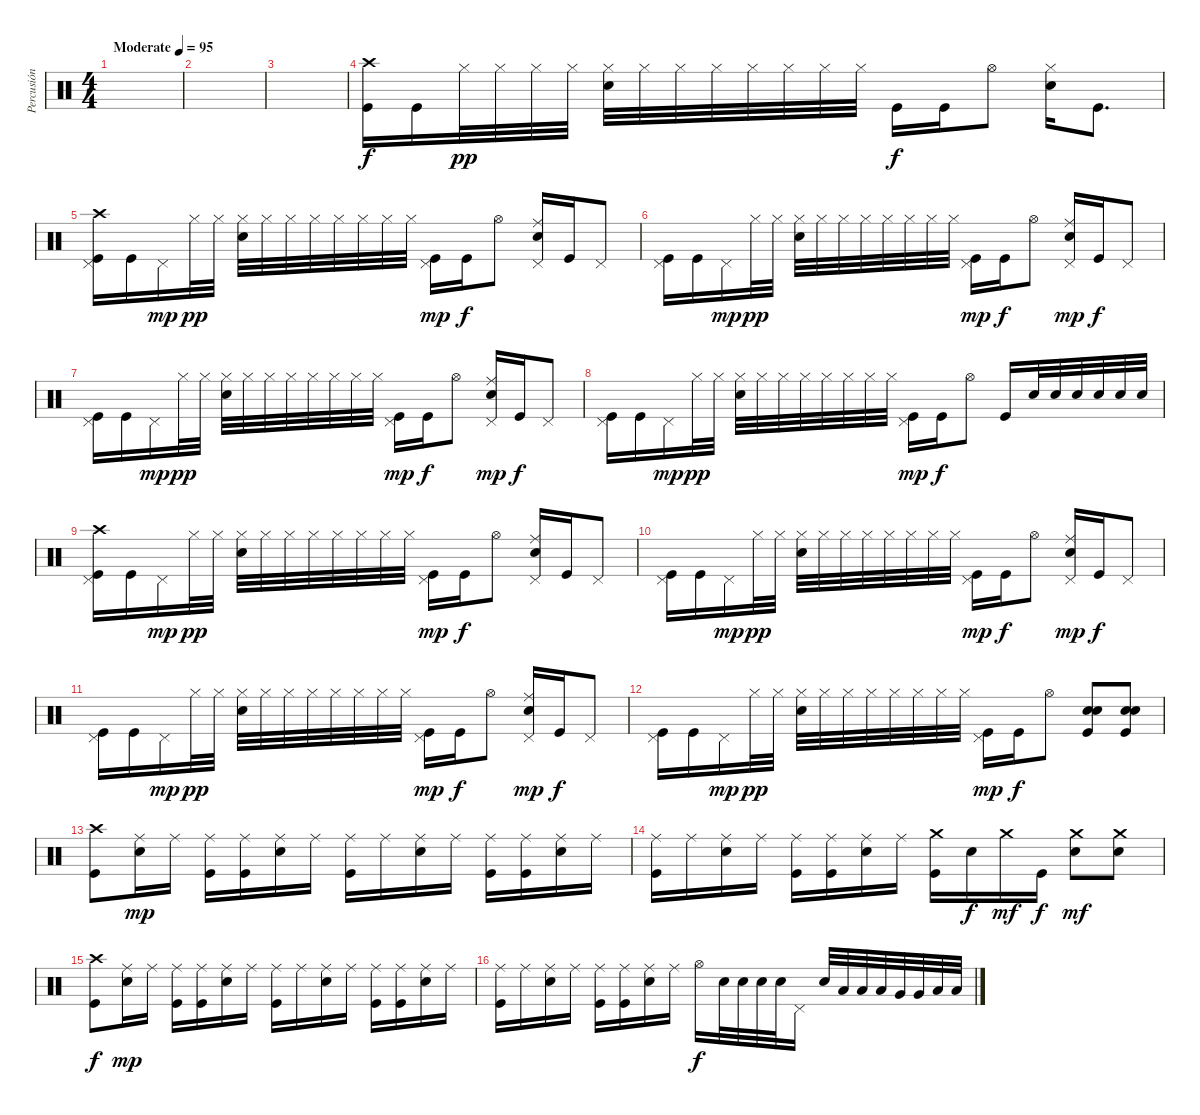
\track ("Percusión" "Percusión") {instrument percussion}
\staff {score}
\articulation defaults
\ts (4 4)
\tempo (95 "Moderate")
\clef neutral
\ks c
|
|
|
("Kick (hit)" "Crash high (hit)").16 "Kick (hit)".16 "Hi-Hat (closed)".32{dy pp} "Hi-Hat (closed)".32 "Hi-Hat (closed)".32 "Hi-Hat (closed)".32 ("Snare (hit) 2" "Hi-Hat (closed)").32 "Hi-Hat (closed)".32 "Hi-Hat (closed)".32 "Hi-Hat (closed)".32 "Hi-Hat (closed)".32 "Hi-Hat (closed)".32 "Hi-Hat (closed)".32 "Hi-Hat (closed)".32 "Kick (hit)".16{dy f} "Kick (hit)".16 "Hi-Hat (open)".8 ("Snare (hit) 2" "Hi-Hat (closed)").16 "Kick (hit)".8{d} |
("Kick (hit)" "Pedal Hi-Hat (hit)" "Crash high (hit)").16 "Kick (hit)".16 "Pedal Hi-Hat (hit)".16{dy mp} "Hi-Hat (closed)".32{dy pp} "Hi-Hat (closed)".32 ("Snare (hit) 2" "Hi-Hat (closed)").32 "Hi-Hat (closed)".32 "Hi-Hat (closed)".32 "Hi-Hat (closed)".32 "Hi-Hat (closed)".32 "Hi-Hat (closed)".32 "Hi-Hat (closed)".32 "Hi-Hat (closed)".32 ("Kick (hit)" "Pedal Hi-Hat (hit)").16{dy mp} "Kick (hit)".16{dy f} "Hi-Hat (open)".8 ("Snare (hit) 2" "Pedal Hi-Hat (hit)" "Ride (middle)").16 "Kick (hit)".16 "Pedal Hi-Hat (hit)".8 |
("Kick (hit)" "Pedal Hi-Hat (hit)").16 "Kick (hit)".16 "Pedal Hi-Hat (hit)".16{dy mp} "Hi-Hat (closed)".32{dy pp} "Hi-Hat (closed)".32 ("Snare (hit) 2" "Hi-Hat (closed)").32 "Hi-Hat (closed)".32 "Hi-Hat (closed)".32 "Hi-Hat (closed)".32 "Hi-Hat (closed)".32 "Hi-Hat (closed)".32 "Hi-Hat (closed)".32 "Hi-Hat (closed)".32 ("Kick (hit)" "Pedal Hi-Hat (hit)").16{dy mp} "Kick (hit)".16{dy f} "Hi-Hat (open)".8 ("Snare (hit) 2" "Pedal Hi-Hat (hit)" "Ride (middle)").16{dy mp} "Kick (hit)".16{dy f} "Pedal Hi-Hat (hit)".8 |
("Kick (hit)" "Pedal Hi-Hat (hit)").16 "Kick (hit)".16 "Pedal Hi-Hat (hit)".16{dy mp} "Hi-Hat (closed)".32{dy pp} "Hi-Hat (closed)".32 ("Snare (hit) 2" "Hi-Hat (closed)").32 "Hi-Hat (closed)".32 "Hi-Hat (closed)".32 "Hi-Hat (closed)".32 "Hi-Hat (closed)".32 "Hi-Hat (closed)".32 "Hi-Hat (closed)".32 "Hi-Hat (closed)".32 ("Kick (hit)" "Pedal Hi-Hat (hit)").16{dy mp} "Kick (hit)".16{dy f} "Hi-Hat (open)".8 ("Snare (hit) 2" "Pedal Hi-Hat (hit)" "Ride (middle)").16{dy mp} "Kick (hit)".16{dy f} "Pedal Hi-Hat (hit)".8 |
("Kick (hit)" "Pedal Hi-Hat (hit)").16 "Kick (hit)".16 "Pedal Hi-Hat (hit)".16{dy mp} "Hi-Hat (closed)".32{dy pp} "Hi-Hat (closed)".32 ("Snare (hit) 2" "Hi-Hat (closed)").32 "Hi-Hat (closed)".32 "Hi-Hat (closed)".32 "Hi-Hat (closed)".32 "Hi-Hat (closed)".32 "Hi-Hat (closed)".32 "Hi-Hat (closed)".32 "Hi-Hat (closed)".32 ("Kick (hit)" "Pedal Hi-Hat (hit)").16{dy mp} "Kick (hit)".16{dy f} "Hi-Hat (open)".8 "Kick (hit)".16 "Snare (hit) 2".32 "Snare (hit) 2".32 "Snare (hit) 2".32 "Snare (hit) 2".32 "Snare (hit) 2".32 "Snare (hit) 2".32 |
("Kick (hit)" "Pedal Hi-Hat (hit)" "Crash high (hit)").16 "Kick (hit)".16 "Pedal Hi-Hat (hit)".16{dy mp} "Hi-Hat (closed)".32{dy pp} "Hi-Hat (closed)".32 ("Snare (hit) 2" "Hi-Hat (closed)").32 "Hi-Hat (closed)".32 "Hi-Hat (closed)".32 "Hi-Hat (closed)".32 "Hi-Hat (closed)".32 "Hi-Hat (closed)".32 "Hi-Hat (closed)".32 "Hi-Hat (closed)".32 ("Kick (hit)" "Pedal Hi-Hat (hit)").16{dy mp} "Kick (hit)".16{dy f} "Hi-Hat (open)".8 ("Snare (hit) 2" "Pedal Hi-Hat (hit)" "Ride (middle)").16 "Kick (hit)".16 "Pedal Hi-Hat (hit)".8 |
("Kick (hit)" "Pedal Hi-Hat (hit)").16 "Kick (hit)".16 "Pedal Hi-Hat (hit)".16{dy mp} "Hi-Hat (closed)".32{dy pp} "Hi-Hat (closed)".32 ("Snare (hit) 2" "Hi-Hat (closed)").32 "Hi-Hat (closed)".32 "Hi-Hat (closed)".32 "Hi-Hat (closed)".32 "Hi-Hat (closed)".32 "Hi-Hat (closed)".32 "Hi-Hat (closed)".32 "Hi-Hat (closed)".32 ("Kick (hit)" "Pedal Hi-Hat (hit)").16{dy mp} "Kick (hit)".16{dy f} "Hi-Hat (open)".8 ("Snare (hit) 2" "Pedal Hi-Hat (hit)" "Ride (middle)").16{dy mp} "Kick (hit)".16{dy f} "Pedal Hi-Hat (hit)".8 |
("Kick (hit)" "Pedal Hi-Hat (hit)").16 "Kick (hit)".16 "Pedal Hi-Hat (hit)".16{dy mp} "Hi-Hat (closed)".32{dy pp} "Hi-Hat (closed)".32 ("Snare (hit) 2" "Hi-Hat (closed)").32 "Hi-Hat (closed)".32 "Hi-Hat (closed)".32 "Hi-Hat (closed)".32 "Hi-Hat (closed)".32 "Hi-Hat (closed)".32 "Hi-Hat (closed)".32 "Hi-Hat (closed)".32 ("Kick (hit)" "Pedal Hi-Hat (hit)").16{dy mp} "Kick (hit)".16{dy f} "Hi-Hat (open)".8 ("Snare (hit) 2" "Pedal Hi-Hat (hit)" "Ride (middle)").16{dy mp} "Kick (hit)".16{dy f} "Pedal Hi-Hat (hit)".8 |
("Kick (hit)" "Pedal Hi-Hat (hit)").16 "Kick (hit)".16 "Pedal Hi-Hat (hit)".16{dy mp} "Hi-Hat (closed)".32{dy pp} "Hi-Hat (closed)".32 ("Snare (hit) 2" "Hi-Hat (closed)").32 "Hi-Hat (closed)".32 "Hi-Hat (closed)".32 "Hi-Hat (closed)".32 "Hi-Hat (closed)".32 "Hi-Hat (closed)".32 "Hi-Hat (closed)".32 "Hi-Hat (closed)".32 ("Kick (hit)" "Pedal Hi-Hat (hit)").16{dy mp} "Kick (hit)".16{dy f} "Hi-Hat (open)".8 ("Kick (hit)" "Snare (hit) 2" "Snare (hit) 2").8 ("Kick (hit)" "Snare (hit) 2" "Snare (hit) 2").8 |
("Kick (hit)" "Crash high (hit)").8 ("Snare (hit) 2" "Ride (middle)").16{dy mp} "Ride (middle)".16 ("Kick (hit)" "Ride (middle)").16 ("Kick (hit)" "Ride (middle)").16 ("Snare (hit) 2" "Ride (middle)").16 "Ride (middle)".16 ("Kick (hit)" "Ride (middle)").16 "Ride (middle)".16 ("Snare (hit) 2" "Ride (middle)").16 "Ride (middle)".16 ("Kick (hit)" "Ride (middle)").16 ("Kick (hit)" "Ride (middle)").16 ("Snare (hit) 2" "Ride (middle)").16 "Ride (middle)".16 |
("Kick (hit)" "Ride (middle)").16 "Ride (middle)".16 ("Snare (hit) 2" "Ride (middle)").16 "Ride (middle)".16 ("Kick (hit)" "Ride (middle)").16 ("Kick (hit)" "Ride (middle)").16 ("Snare (hit) 2" "Ride (middle)").16 "Ride (middle)".16 ("Kick (hit)" "Crash medium (hit)").16 "Snare (hit) 2".16{dy f} "Crash medium (hit)".16{dy mf} "Kick (hit)".16{dy f} ("Snare (hit) 2" "Crash medium (hit)").8{dy mf} ("Snare (hit) 2" "Crash medium (hit)").8 |
("Kick (hit)" "Crash high (hit)").8{dy f} ("Snare (hit) 2" "Ride (middle)").16{dy mp} "Ride (middle)".16 ("Kick (hit)" "Ride (middle)").16 ("Kick (hit)" "Ride (middle)").16 ("Snare (hit) 2" "Ride (middle)").16 "Ride (middle)".16 ("Kick (hit)" "Ride (middle)").16 "Ride (middle)".16 ("Snare (hit) 2" "Ride (middle)").16 "Ride (middle)".16 ("Kick (hit)" "Ride (middle)").16 ("Kick (hit)" "Ride (middle)").16 ("Snare (hit) 2" "Ride (middle)").16 "Ride (middle)".16 |
("Kick (hit)" "Ride (middle)").16 "Ride (middle)".16 ("Snare (hit) 2" "Ride (middle)").16 "Ride (middle)".16 ("Kick (hit)" "Ride (middle)").16 ("Kick (hit)" "Ride (middle)").16 ("Snare (hit) 2" "Ride (middle)").16 "Ride (middle)".16 "Hi-Hat (open)".16{dy f} "Snare (hit) 2".32 "Snare (hit) 2".32 "Snare (hit) 2".32 "Snare (hit) 2".32 "Pedal Hi-Hat (hit)".16 "Snare (hit) 2".32 "Low Tom (hit)".32 "Low Tom (hit)".32 "Low Tom (hit)".32 "Very Low Tom (hit)".32 "Very Low Tom (hit)".32 "Low Floor Tom (hit)".32 "Low Floor Tom (hit)".32
